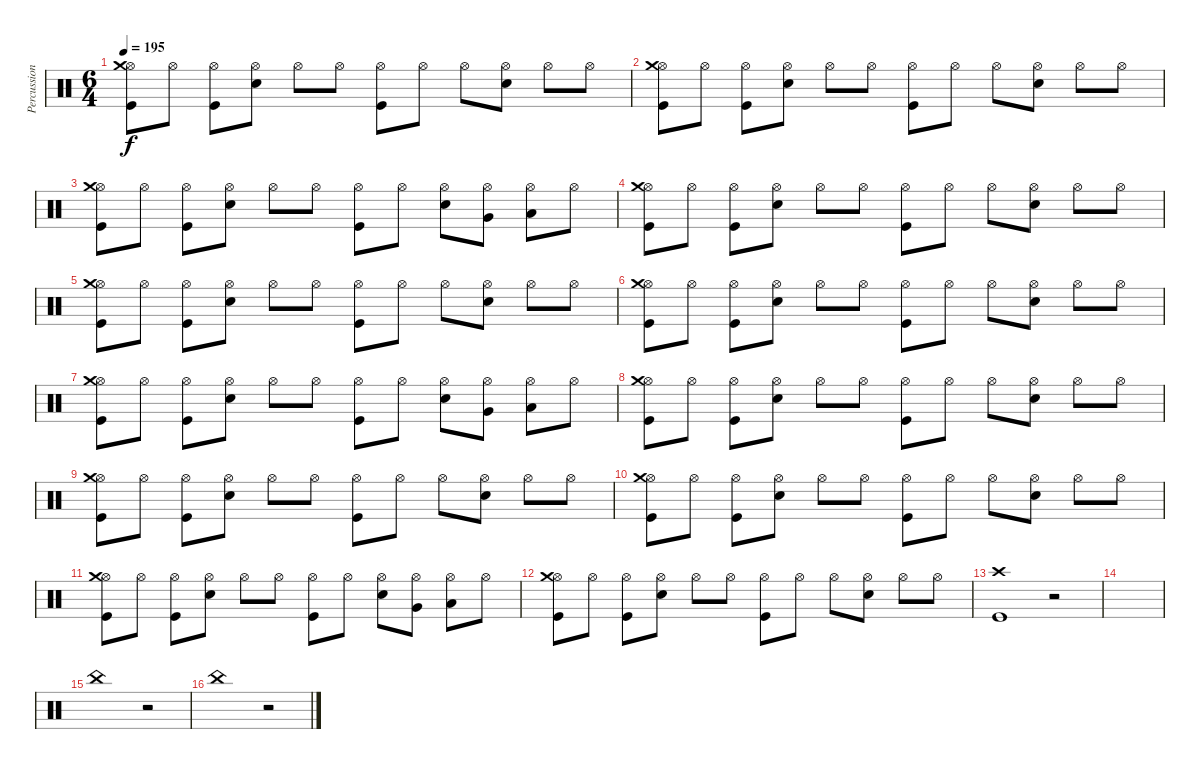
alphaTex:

\track ("Percussion" "Percussion") {instrument percussion}
\staff {score}
\articulation defaults
\ts (6 4)
\tempo 195
\clef neutral
\ks c
("Hi-Hat (open)" "Crash medium (hit)" "Kick (hit)").8{dy f} "Hi-Hat (open)".8 ("Hi-Hat (open)" "Kick (hit)").8 ("Hi-Hat (open)" "Electric Snare (hit)").8 "Hi-Hat (open)".8 "Hi-Hat (open)".8 ("Hi-Hat (open)" "Kick (hit)").8 "Hi-Hat (open)".8 "Hi-Hat (open)".8 ("Hi-Hat (open)" "Electric Snare (hit)").8 "Hi-Hat (open)".8 "Hi-Hat (open)".8 |
("Hi-Hat (open)" "Crash medium (hit)" "Kick (hit)").8 "Hi-Hat (open)".8 ("Hi-Hat (open)" "Kick (hit)").8 ("Hi-Hat (open)" "Electric Snare (hit)").8 "Hi-Hat (open)".8 "Hi-Hat (open)".8 ("Hi-Hat (open)" "Kick (hit)").8 "Hi-Hat (open)".8 "Hi-Hat (open)".8 ("Hi-Hat (open)" "Electric Snare (hit)").8 "Hi-Hat (open)".8 "Hi-Hat (open)".8 |
("Hi-Hat (open)" "Crash medium (hit)" "Kick (hit)").8 "Hi-Hat (open)".8 ("Hi-Hat (open)" "Kick (hit)").8 ("Hi-Hat (open)" "Electric Snare (hit)").8 "Hi-Hat (open)".8 "Hi-Hat (open)".8 ("Hi-Hat (open)" "Kick (hit)").8 "Hi-Hat (open)".8 ("Hi-Hat (open)" "Electric Snare (hit)").8 ("Hi-Hat (open)" "Very Low Tom (hit)").8 ("Hi-Hat (open)" "Low Floor Tom (hit)").8 "Hi-Hat (open)".8 |
("Hi-Hat (open)" "Crash medium (hit)" "Kick (hit)").8 "Hi-Hat (open)".8 ("Hi-Hat (open)" "Kick (hit)").8 ("Hi-Hat (open)" "Electric Snare (hit)").8 "Hi-Hat (open)".8 "Hi-Hat (open)".8 ("Hi-Hat (open)" "Kick (hit)").8 "Hi-Hat (open)".8 "Hi-Hat (open)".8 ("Hi-Hat (open)" "Electric Snare (hit)").8 "Hi-Hat (open)".8 "Hi-Hat (open)".8 |
("Hi-Hat (open)" "Crash medium (hit)" "Kick (hit)").8 "Hi-Hat (open)".8 ("Hi-Hat (open)" "Kick (hit)").8 ("Hi-Hat (open)" "Electric Snare (hit)").8 "Hi-Hat (open)".8 "Hi-Hat (open)".8 ("Hi-Hat (open)" "Kick (hit)").8 "Hi-Hat (open)".8 "Hi-Hat (open)".8 ("Hi-Hat (open)" "Electric Snare (hit)").8 "Hi-Hat (open)".8 "Hi-Hat (open)".8 |
("Hi-Hat (open)" "Crash medium (hit)" "Kick (hit)").8 "Hi-Hat (open)".8 ("Hi-Hat (open)" "Kick (hit)").8 ("Hi-Hat (open)" "Electric Snare (hit)").8 "Hi-Hat (open)".8 "Hi-Hat (open)".8 ("Hi-Hat (open)" "Kick (hit)").8 "Hi-Hat (open)".8 "Hi-Hat (open)".8 ("Hi-Hat (open)" "Electric Snare (hit)").8 "Hi-Hat (open)".8 "Hi-Hat (open)".8 |
("Hi-Hat (open)" "Crash medium (hit)" "Kick (hit)").8 "Hi-Hat (open)".8 ("Hi-Hat (open)" "Kick (hit)").8 ("Hi-Hat (open)" "Electric Snare (hit)").8 "Hi-Hat (open)".8 "Hi-Hat (open)".8 ("Hi-Hat (open)" "Kick (hit)").8 "Hi-Hat (open)".8 ("Hi-Hat (open)" "Electric Snare (hit)").8 ("Hi-Hat (open)" "Very Low Tom (hit)").8 ("Hi-Hat (open)" "Low Floor Tom (hit)").8 "Hi-Hat (open)".8 |
("Hi-Hat (open)" "Crash medium (hit)" "Kick (hit)").8 "Hi-Hat (open)".8 ("Hi-Hat (open)" "Kick (hit)").8 ("Hi-Hat (open)" "Electric Snare (hit)").8 "Hi-Hat (open)".8 "Hi-Hat (open)".8 ("Hi-Hat (open)" "Kick (hit)").8 "Hi-Hat (open)".8 "Hi-Hat (open)".8 ("Hi-Hat (open)" "Electric Snare (hit)").8 "Hi-Hat (open)".8 "Hi-Hat (open)".8 |
("Hi-Hat (open)" "Crash medium (hit)" "Kick (hit)").8 "Hi-Hat (open)".8 ("Hi-Hat (open)" "Kick (hit)").8 ("Hi-Hat (open)" "Electric Snare (hit)").8 "Hi-Hat (open)".8 "Hi-Hat (open)".8 ("Hi-Hat (open)" "Kick (hit)").8 "Hi-Hat (open)".8 "Hi-Hat (open)".8 ("Hi-Hat (open)" "Electric Snare (hit)").8 "Hi-Hat (open)".8 "Hi-Hat (open)".8 |
("Hi-Hat (open)" "Crash medium (hit)" "Kick (hit)").8 "Hi-Hat (open)".8 ("Hi-Hat (open)" "Kick (hit)").8 ("Hi-Hat (open)" "Electric Snare (hit)").8 "Hi-Hat (open)".8 "Hi-Hat (open)".8 ("Hi-Hat (open)" "Kick (hit)").8 "Hi-Hat (open)".8 "Hi-Hat (open)".8 ("Hi-Hat (open)" "Electric Snare (hit)").8 "Hi-Hat (open)".8 "Hi-Hat (open)".8 |
("Hi-Hat (open)" "Crash medium (hit)" "Kick (hit)").8 "Hi-Hat (open)".8 ("Hi-Hat (open)" "Kick (hit)").8 ("Hi-Hat (open)" "Electric Snare (hit)").8 "Hi-Hat (open)".8 "Hi-Hat (open)".8 ("Hi-Hat (open)" "Kick (hit)").8 "Hi-Hat (open)".8 ("Hi-Hat (open)" "Electric Snare (hit)").8 ("Hi-Hat (open)" "Very Low Tom (hit)").8 ("Hi-Hat (open)" "Low Floor Tom (hit)").8 "Hi-Hat (open)".8 |
("Hi-Hat (open)" "Crash medium (hit)" "Kick (hit)").8 "Hi-Hat (open)".8 ("Hi-Hat (open)" "Kick (hit)").8 ("Hi-Hat (open)" "Electric Snare (hit)").8 "Hi-Hat (open)".8 "Hi-Hat (open)".8 ("Hi-Hat (open)" "Kick (hit)").8 "Hi-Hat (open)".8 "Hi-Hat (open)".8 ("Hi-Hat (open)" "Electric Snare (hit)").8 "Hi-Hat (open)".8 "Hi-Hat (open)".8 |
("Crash high (hit)" "Kick (hit)").1 r.2 |
|
"China (hit)".1 r.2 |
"China (hit)".1 r.2
